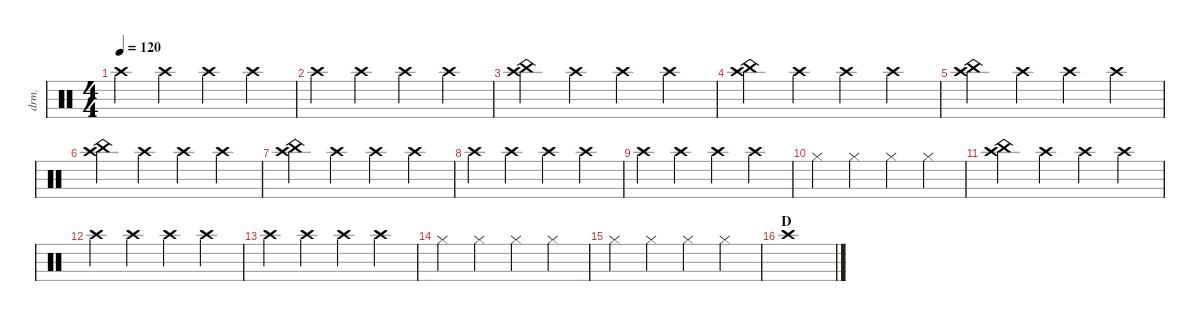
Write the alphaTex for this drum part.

\defaultSystemsLayout 4
\hideDynamics
\bracketExtendMode nobrackets
\otherSystemsTrackNameOrientation horizontal
\track ("Batterie" "drm.") {instrument percussion}
\staff {score}
\articulation defaults
\ts (4 4)
\tempo 120
\clef neutral
\ks c "Crash high (hit)".4{dy f} "Crash high (hit)".4 "Crash high (hit)".4 "Crash high (hit)".4
|
"Crash high (hit)".4 "Crash high (hit)".4 "Crash high (hit)".4 "Crash high (hit)".4 |
("China (hit)" "Crash high (hit)").4 "Crash high (hit)".4 "Crash high (hit)".4 "Crash high (hit)".4 |
("China (hit)" "Crash high (hit)").4 "Crash high (hit)".4 "Crash high (hit)".4 "Crash high (hit)".4 |
("China (hit)" "Crash high (hit)").4 "Crash high (hit)".4 "Crash high (hit)".4 "Crash high (hit)".4 |
("China (hit)" "Crash high (hit)").4 "Crash high (hit)".4 "Crash high (hit)".4 "Crash high (hit)".4 |
("China (hit)" "Crash high (hit)").4 "Crash high (hit)".4 "Crash high (hit)".4 "Crash high (hit)".4 |
"Crash high (hit)".4 "Crash high (hit)".4 "Crash high (hit)".4 "Crash high (hit)".4 |
"Crash high (hit)".4 "Crash high (hit)".4 "Crash high (hit)".4 "Crash high (hit)".4 |
"Hi-Hat (closed)".4 "Hi-Hat (closed)".4 "Hi-Hat (closed)".4 "Hi-Hat (closed)".4 |
("China (hit)" "Crash high (hit)").4 "Crash high (hit)".4 "Crash high (hit)".4 "Crash high (hit)".4 |
"Crash high (hit)".4 "Crash high (hit)".4 "Crash high (hit)".4 "Crash high (hit)".4 |
"Crash high (hit)".4 "Crash high (hit)".4 "Crash high (hit)".4 "Crash high (hit)".4 |
"Hi-Hat (closed)".4 "Hi-Hat (closed)".4 "Hi-Hat (closed)".4 "Hi-Hat (closed)".4 |
"Hi-Hat (closed)".4 "Hi-Hat (closed)".4 "Hi-Hat (closed)".4 "Hi-Hat (closed)".4 |
\section ("" "D")
"Crash high (hit)".1
